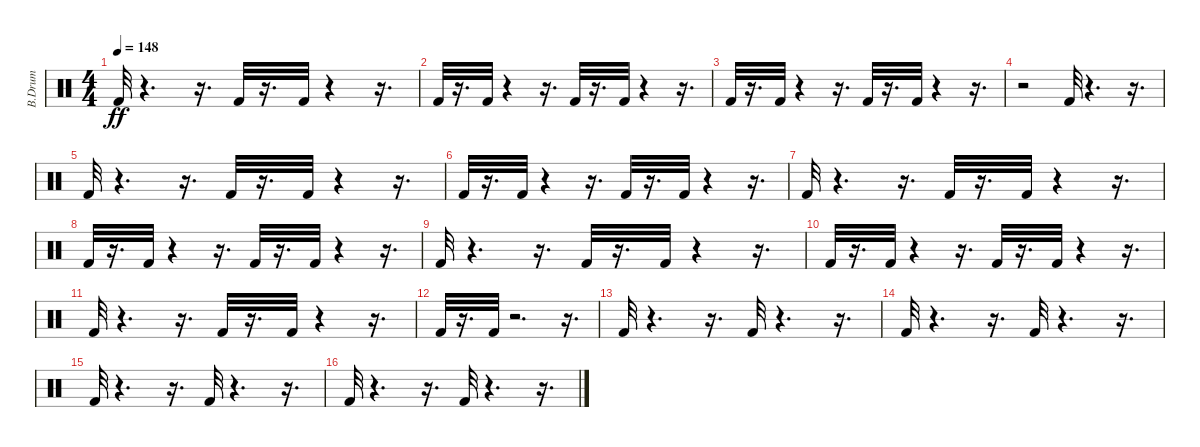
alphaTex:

\track ("B.Drum                              " "B.Drum    ") {instrument percussion}
\staff {score}
\articulation defaults
\ts (4 4)
\tempo 148
\clef neutral
\ks c "Kick (hit) 2".32{dy ff}
r.4{d} r.16{d} "Kick (hit) 2".32 r.16{d} "Kick (hit) 2".32 r.4 r.16{d} |
"Kick (hit) 2".32 r.16{d} "Kick (hit) 2".32 r.4 r.16{d} "Kick (hit) 2".32 r.16{d} "Kick (hit) 2".32 r.4 r.16{d} |
"Kick (hit) 2".32 r.16{d} "Kick (hit) 2".32 r.4 r.16{d} "Kick (hit) 2".32 r.16{d} "Kick (hit) 2".32 r.4 r.16{d} |
r.2 "Kick (hit) 2".32 r.4{d} r.16{d} |
"Kick (hit) 2".32 r.4{d} r.16{d} "Kick (hit) 2".32 r.16{d} "Kick (hit) 2".32 r.4 r.16{d} |
"Kick (hit) 2".32 r.16{d} "Kick (hit) 2".32 r.4 r.16{d} "Kick (hit) 2".32 r.16{d} "Kick (hit) 2".32 r.4 r.16{d} |
"Kick (hit) 2".32 r.4{d} r.16{d} "Kick (hit) 2".32 r.16{d} "Kick (hit) 2".32 r.4 r.16{d} |
"Kick (hit) 2".32 r.16{d} "Kick (hit) 2".32 r.4 r.16{d} "Kick (hit) 2".32 r.16{d} "Kick (hit) 2".32 r.4 r.16{d} |
"Kick (hit) 2".32 r.4{d} r.16{d} "Kick (hit) 2".32 r.16{d} "Kick (hit) 2".32 r.4 r.16{d} |
"Kick (hit) 2".32 r.16{d} "Kick (hit) 2".32 r.4 r.16{d} "Kick (hit) 2".32 r.16{d} "Kick (hit) 2".32 r.4 r.16{d} |
"Kick (hit) 2".32 r.4{d} r.16{d} "Kick (hit) 2".32 r.16{d} "Kick (hit) 2".32 r.4 r.16{d} |
"Kick (hit) 2".32 r.16{d} "Kick (hit) 2".32 r.2{d} r.16{d} |
"Kick (hit) 2".32 r.4{d} r.16{d} "Kick (hit) 2".32 r.4{d} r.16{d} |
"Kick (hit) 2".32 r.4{d} r.16{d} "Kick (hit) 2".32 r.4{d} r.16{d} |
"Kick (hit) 2".32 r.4{d} r.16{d} "Kick (hit) 2".32 r.4{d} r.16{d} |
"Kick (hit) 2".32 r.4{d} r.16{d} "Kick (hit) 2".32 r.4{d} r.16{d}
